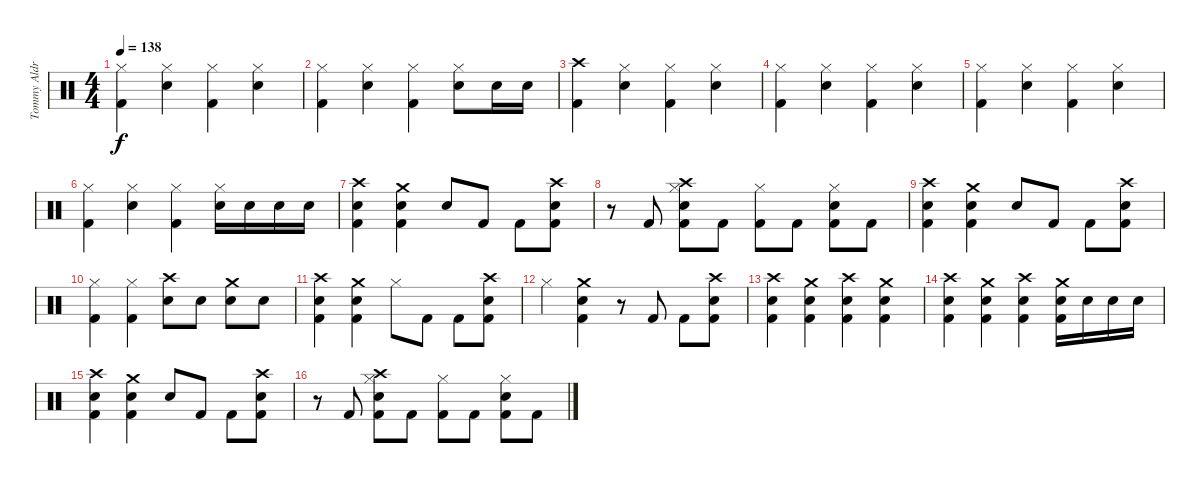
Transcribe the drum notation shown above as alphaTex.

\track ("Tommy Aldridge" "Tommy Aldr") {instrument percussion}
\staff {score}
\articulation defaults
\ts (4 4)
\tempo 138
\clef neutral
\ks c
("Hi-Hat (closed)" "Kick (hit) 2").4{dy f} ("Snare (hit) 2" "Hi-Hat (closed)").4 ("Hi-Hat (closed)" "Kick (hit) 2").4 ("Snare (hit) 2" "Hi-Hat (closed)").4 |
("Hi-Hat (closed)" "Kick (hit) 2").4 ("Snare (hit) 2" "Hi-Hat (closed)").4 ("Hi-Hat (closed)" "Kick (hit) 2").4 ("Snare (hit) 2" "Hi-Hat (closed)").8 "Snare (hit) 2".16 "Snare (hit) 2".16 |
("Crash high (hit)" "Kick (hit) 2").4 ("Snare (hit) 2" "Hi-Hat (closed)").4 ("Hi-Hat (closed)" "Kick (hit) 2").4 ("Snare (hit) 2" "Hi-Hat (closed)").4 |
("Hi-Hat (closed)" "Kick (hit) 2").4 ("Snare (hit) 2" "Hi-Hat (closed)").4 ("Hi-Hat (closed)" "Kick (hit) 2").4 ("Snare (hit) 2" "Hi-Hat (closed)").4 |
("Hi-Hat (closed)" "Kick (hit) 2").4 ("Snare (hit) 2" "Hi-Hat (closed)").4 ("Hi-Hat (closed)" "Kick (hit) 2").4 ("Snare (hit) 2" "Hi-Hat (closed)").4 |
("Hi-Hat (closed)" "Kick (hit) 2").4 ("Snare (hit) 2" "Hi-Hat (closed)").4 ("Hi-Hat (closed)" "Kick (hit) 2").4 ("Snare (hit) 2" "Hi-Hat (closed)").16 "Snare (hit) 2".16 "Snare (hit) 2".16 "Snare (hit) 2".16 |
("Crash high (hit)" "Snare (hit) 2" "Kick (hit) 2").4 ("Crash medium (hit)" "Snare (hit) 2" "Kick (hit) 2").4 "Snare (hit) 2".8 "Kick (hit) 2".8 "Kick (hit) 2".8 ("Crash high (hit)" "Snare (hit) 2" "Kick (hit) 2").8 |
r.8 "Kick (hit) 2".8 ("Crash high (hit)" "Snare (hit) 2" "Hi-Hat (closed)" "Kick (hit) 2").8 "Kick (hit) 2".8 ("Hi-Hat (closed)" "Kick (hit) 2").8 "Kick (hit) 2".8 ("Snare (hit) 2" "Hi-Hat (closed)" "Kick (hit) 2").8 "Kick (hit) 2".8 |
("Crash high (hit)" "Snare (hit) 2" "Kick (hit) 2").4 ("Crash medium (hit)" "Snare (hit) 2" "Kick (hit) 2").4 "Snare (hit) 2".8 "Kick (hit) 2".8 "Kick (hit) 2".8 ("Crash high (hit)" "Snare (hit) 2" "Kick (hit) 2").8 |
("Hi-Hat (closed)" "Kick (hit) 2").4 ("Hi-Hat (closed)" "Kick (hit) 2").4 ("Crash high (hit)" "Snare (hit) 2").8 "Snare (hit) 2".8 ("Crash medium (hit)" "Snare (hit) 2").8 "Snare (hit) 2".8 |
("Crash high (hit)" "Snare (hit) 2" "Kick (hit) 2").4 ("Crash medium (hit)" "Snare (hit) 2" "Kick (hit) 2").4 "Hi-Hat (closed)".8 "Kick (hit) 2".8 "Kick (hit) 2".8 ("Crash high (hit)" "Snare (hit) 2" "Kick (hit) 2").8 |
"Hi-Hat (closed)".4 ("Crash medium (hit)" "Snare (hit) 2" "Kick (hit) 2").4 r.8 "Kick (hit) 2".8 "Kick (hit) 2".8 ("Crash high (hit)" "Snare (hit) 2" "Kick (hit) 2").8 |
("Crash high (hit)" "Snare (hit) 2" "Kick (hit) 2").4 ("Crash medium (hit)" "Snare (hit) 2" "Kick (hit) 2").4 ("Crash high (hit)" "Snare (hit) 2" "Kick (hit) 2").4 ("Crash medium (hit)" "Snare (hit) 2" "Kick (hit) 2").4 |
("Crash high (hit)" "Snare (hit) 2" "Kick (hit) 2").4 ("Crash medium (hit)" "Snare (hit) 2" "Kick (hit) 2").4 ("Crash high (hit)" "Snare (hit) 2" "Kick (hit) 2").4 ("Crash medium (hit)" "Snare (hit) 2" "Kick (hit) 2").16 "Snare (hit) 2".16 "Snare (hit) 2".16 "Snare (hit) 2".16 |
("Crash high (hit)" "Snare (hit) 2" "Kick (hit) 2").4 ("Crash medium (hit)" "Snare (hit) 2" "Kick (hit) 2").4 "Snare (hit) 2".8 "Kick (hit) 2".8 "Kick (hit) 2".8 ("Crash high (hit)" "Snare (hit) 2" "Kick (hit) 2").8 |
r.8 "Kick (hit) 2".8 ("Crash high (hit)" "Snare (hit) 2" "Hi-Hat (closed)" "Kick (hit) 2").8 "Kick (hit) 2".8 ("Hi-Hat (closed)" "Kick (hit) 2").8 "Kick (hit) 2".8 ("Snare (hit) 2" "Hi-Hat (closed)" "Kick (hit) 2").8 "Kick (hit) 2".8
